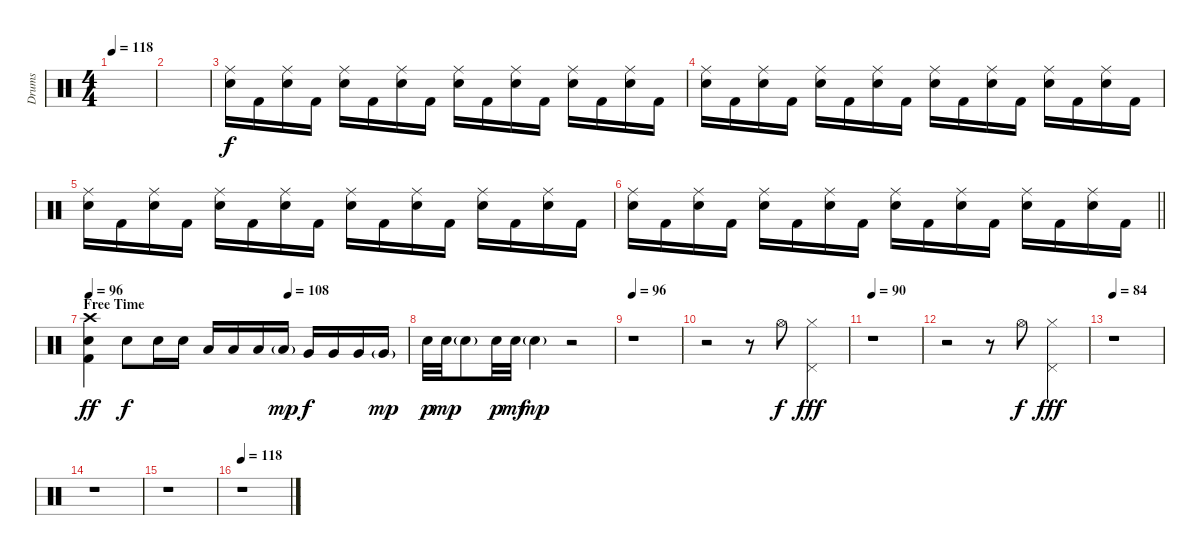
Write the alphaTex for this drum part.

\track ("Drums" "Drums") {instrument percussion}
\staff {score}
\articulation defaults
\ts (4 4)
\tempo 118
\clef neutral
\ks c
|
|
("Ride (middle)" "Electric Snare (hit)").16 "Kick (hit) 2".16 ("Ride (middle)" "Electric Snare (hit)").16 "Kick (hit) 2".16 ("Ride (middle)" "Electric Snare (hit)").16 "Kick (hit) 2".16 ("Ride (middle)" "Electric Snare (hit)").16 "Kick (hit) 2".16 ("Ride (middle)" "Electric Snare (hit)").16 "Kick (hit) 2".16 ("Ride (middle)" "Electric Snare (hit)").16 "Kick (hit) 2".16 ("Ride (middle)" "Electric Snare (hit)").16 "Kick (hit) 2".16 ("Ride (middle)" "Electric Snare (hit)").16 "Kick (hit) 2".16 |
("Ride (middle)" "Electric Snare (hit)").16 "Kick (hit) 2".16 ("Ride (middle)" "Electric Snare (hit)").16 "Kick (hit) 2".16 ("Ride (middle)" "Electric Snare (hit)").16 "Kick (hit) 2".16 ("Ride (middle)" "Electric Snare (hit)").16 "Kick (hit) 2".16 ("Ride (middle)" "Electric Snare (hit)").16 "Kick (hit) 2".16 ("Ride (middle)" "Electric Snare (hit)").16 "Kick (hit) 2".16 ("Ride (middle)" "Electric Snare (hit)").16 "Kick (hit) 2".16 ("Ride (middle)" "Electric Snare (hit)").16 "Kick (hit) 2".16 |
("Ride (middle)" "Electric Snare (hit)").16 "Kick (hit) 2".16 ("Ride (middle)" "Electric Snare (hit)").16 "Kick (hit) 2".16 ("Ride (middle)" "Electric Snare (hit)").16 "Kick (hit) 2".16 ("Ride (middle)" "Electric Snare (hit)").16 "Kick (hit) 2".16 ("Ride (middle)" "Electric Snare (hit)").16 "Kick (hit) 2".16 ("Ride (middle)" "Electric Snare (hit)").16 "Kick (hit) 2".16 ("Ride (middle)" "Electric Snare (hit)").16 "Kick (hit) 2".16 ("Ride (middle)" "Electric Snare (hit)").16 "Kick (hit) 2".16 |
\barLineRight lightlight
("Ride (middle)" "Electric Snare (hit)").16 "Kick (hit) 2".16 ("Ride (middle)" "Electric Snare (hit)").16 "Kick (hit) 2".16 ("Ride (middle)" "Electric Snare (hit)").16 "Kick (hit) 2".16 ("Ride (middle)" "Electric Snare (hit)").16 "Kick (hit) 2".16 ("Ride (middle)" "Electric Snare (hit)").16 "Kick (hit) 2".16 ("Ride (middle)" "Electric Snare (hit)").16 "Kick (hit) 2".16 ("Ride (middle)" "Electric Snare (hit)").16 "Kick (hit) 2".16 ("Ride (middle)" "Electric Snare (hit)").16 "Kick (hit) 2".16 |
\section ("" "Free Time")
\tempo 96
\tempo (108 0.625)
("Crash high (hit)" "Electric Snare (hit)" "Kick (hit) 2").4{dy ff} "Electric Snare (hit)".8{dy f} "Electric Snare (hit)".16 "Electric Snare (hit)".16 "Low Tom (hit)".16 "Low Tom (hit)".16 "Low Tom (hit)".16 "Low Tom (hit)"{g}.16{dy mp} "Very Low Tom (hit)".16{dy f} "Very Low Tom (hit)".16 "Very Low Tom (hit)".16 "Very Low Tom (hit)"{g}.16{dy mp} |
"Electric Snare (hit)".32{dy p} "Electric Snare (hit)".32{dy mp} "Electric Snare (hit)"{g}.8 "Electric Snare (hit)".32{dy p} "Electric Snare (hit)".32{dy mf} "Electric Snare (hit)"{g}.4{dy mp} r.2 |
\tempo 96
r.1 |
r.2 r.8 "Hi-Hat (open)".8{dy f} ("Hi-Hat (closed)" "Pedal Hi-Hat (hit)").4{dy fff} |
\tempo 90
r.1 |
r.2 r.8 "Hi-Hat (open)".8{dy f} ("Hi-Hat (closed)" "Pedal Hi-Hat (hit)").4{dy fff} |
\tempo 84
r.1 |
r.1 |
r.1 |
\tempo 118
r.1
